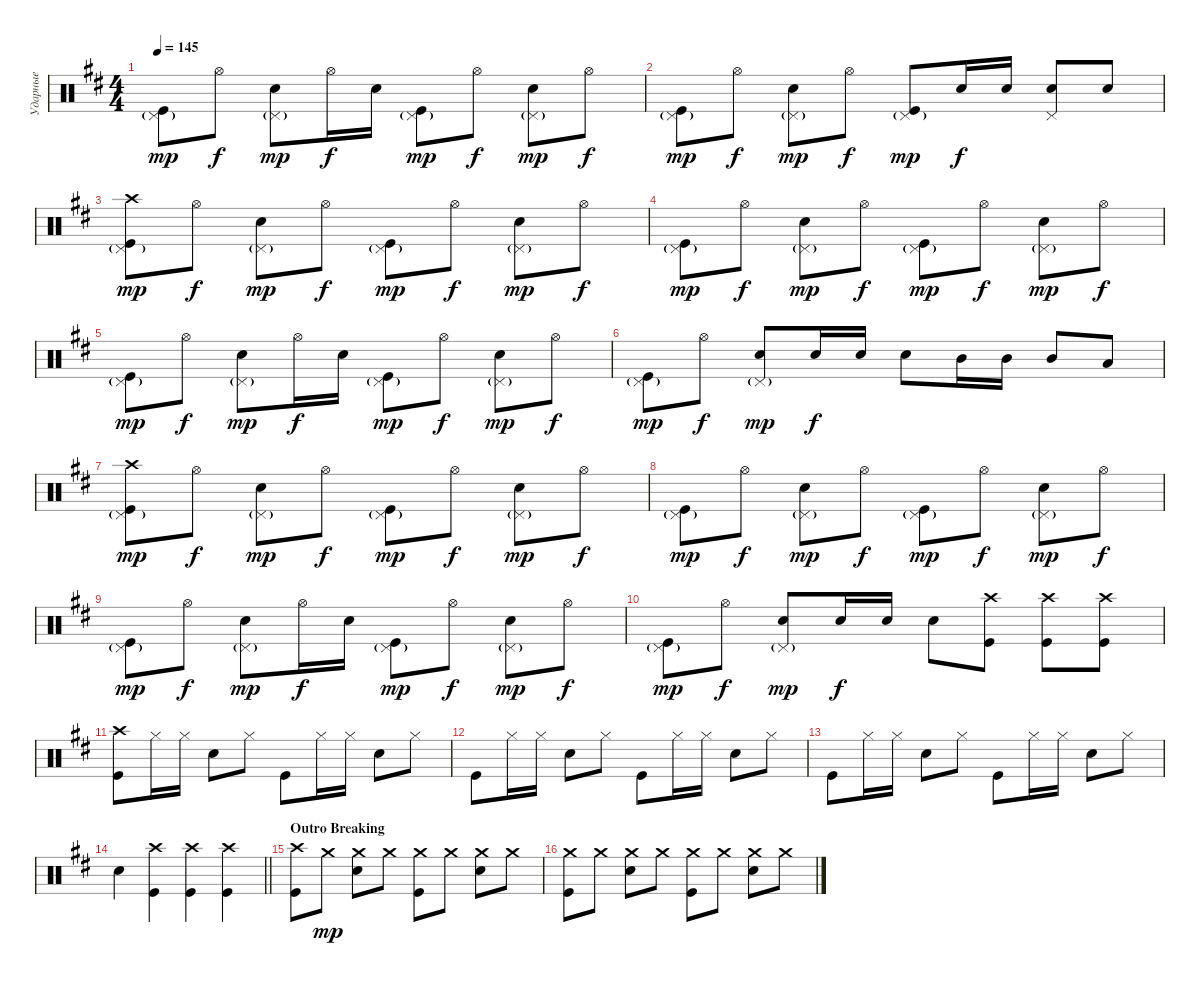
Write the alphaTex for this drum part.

\track ("Ударные" "Ударные") {instrument percussion}
\staff {score}
\articulation defaults
\ts (4 4)
\tempo 145
\clef neutral
\ks bminor
("Pedal Hi-Hat (hit)"{g} "Kick (hit)").8{dy mp} "Hi-Hat (open)".8{dy f} ("Snare (hit) 2" "Pedal Hi-Hat (hit)"{g}).8{dy mp} "Hi-Hat (open)".16{dy f} "Snare (hit) 2".16 ("Pedal Hi-Hat (hit)"{g} "Kick (hit)").8{dy mp} "Hi-Hat (open)".8{dy f} ("Snare (hit) 2" "Pedal Hi-Hat (hit)"{g}).8{dy mp} "Hi-Hat (open)".8{dy f} |
("Pedal Hi-Hat (hit)"{g} "Kick (hit)").8{dy mp} "Hi-Hat (open)".8{dy f} ("Snare (hit) 2" "Pedal Hi-Hat (hit)"{g}).8{dy mp} "Hi-Hat (open)".8{dy f} ("Pedal Hi-Hat (hit)"{g} "Kick (hit)").8{dy mp} "Snare (hit) 2".16{dy f} "Snare (hit) 2".16 ("Snare (hit) 2" "Pedal Hi-Hat (hit)").8 "Snare (hit) 2".8 |
("Pedal Hi-Hat (hit)"{g} "Kick (hit)" "Crash high (hit)").8{dy mp} "Hi-Hat (open)".8{dy f} ("Snare (hit) 2" "Pedal Hi-Hat (hit)"{g}).8{dy mp} "Hi-Hat (open)".8{dy f} ("Pedal Hi-Hat (hit)"{g} "Kick (hit)").8{dy mp} "Hi-Hat (open)".8{dy f} ("Snare (hit) 2" "Pedal Hi-Hat (hit)"{g}).8{dy mp} "Hi-Hat (open)".8{dy f} |
("Pedal Hi-Hat (hit)"{g} "Kick (hit)").8{dy mp} "Hi-Hat (open)".8{dy f} ("Snare (hit) 2" "Pedal Hi-Hat (hit)"{g}).8{dy mp} "Hi-Hat (open)".8{dy f} ("Pedal Hi-Hat (hit)"{g} "Kick (hit)").8{dy mp} "Hi-Hat (open)".8{dy f} ("Snare (hit) 2" "Pedal Hi-Hat (hit)"{g}).8{dy mp} "Hi-Hat (open)".8{dy f} |
("Pedal Hi-Hat (hit)"{g} "Kick (hit)").8{dy mp} "Hi-Hat (open)".8{dy f} ("Snare (hit) 2" "Pedal Hi-Hat (hit)"{g}).8{dy mp} "Hi-Hat (open)".16{dy f} "Snare (hit) 2".16 ("Pedal Hi-Hat (hit)"{g} "Kick (hit)").8{dy mp} "Hi-Hat (open)".8{dy f} ("Snare (hit) 2" "Pedal Hi-Hat (hit)"{g}).8{dy mp} "Hi-Hat (open)".8{dy f} |
("Pedal Hi-Hat (hit)"{g} "Kick (hit)").8{dy mp} "Hi-Hat (open)".8{dy f} ("Snare (hit) 2" "Pedal Hi-Hat (hit)"{g}).8{dy mp} "Snare (hit) 2".16{dy f} "Snare (hit) 2".16 "Snare (hit) 2".8 "Mid Tom (hit)".16 "Mid Tom (hit)".16 "Mid Tom (hit)".8 "Low Tom (hit)".8 |
("Pedal Hi-Hat (hit)"{g} "Kick (hit)" "Crash high (hit)").8{dy mp} "Hi-Hat (open)".8{dy f} ("Snare (hit) 2" "Pedal Hi-Hat (hit)"{g}).8{dy mp} "Hi-Hat (open)".8{dy f} ("Pedal Hi-Hat (hit)"{g} "Kick (hit)").8{dy mp} "Hi-Hat (open)".8{dy f} ("Snare (hit) 2" "Pedal Hi-Hat (hit)"{g}).8{dy mp} "Hi-Hat (open)".8{dy f} |
("Pedal Hi-Hat (hit)"{g} "Kick (hit)").8{dy mp} "Hi-Hat (open)".8{dy f} ("Snare (hit) 2" "Pedal Hi-Hat (hit)"{g}).8{dy mp} "Hi-Hat (open)".8{dy f} ("Pedal Hi-Hat (hit)"{g} "Kick (hit)").8{dy mp} "Hi-Hat (open)".8{dy f} ("Snare (hit) 2" "Pedal Hi-Hat (hit)"{g}).8{dy mp} "Hi-Hat (open)".8{dy f} |
("Pedal Hi-Hat (hit)"{g} "Kick (hit)").8{dy mp} "Hi-Hat (open)".8{dy f} ("Snare (hit) 2" "Pedal Hi-Hat (hit)"{g}).8{dy mp} "Hi-Hat (open)".16{dy f} "Snare (hit) 2".16 ("Pedal Hi-Hat (hit)"{g} "Kick (hit)").8{dy mp} "Hi-Hat (open)".8{dy f} ("Snare (hit) 2" "Pedal Hi-Hat (hit)"{g}).8{dy mp} "Hi-Hat (open)".8{dy f} |
("Pedal Hi-Hat (hit)"{g} "Kick (hit)").8{dy mp} "Hi-Hat (open)".8{dy f} ("Snare (hit) 2" "Pedal Hi-Hat (hit)"{g}).8{dy mp} "Snare (hit) 2".16{dy f} "Snare (hit) 2".16 "Snare (hit) 2".8 ("Kick (hit)" "Crash high (hit)").8 ("Kick (hit)" "Crash high (hit)").8 ("Kick (hit)" "Crash high (hit)").8 |
("Kick (hit)" "Crash high (hit)").8 "Hi-Hat (closed)".16 "Hi-Hat (closed)".16 "Snare (hit) 2".8 "Hi-Hat (closed)".8 "Kick (hit)".8 "Hi-Hat (closed)".16 "Hi-Hat (closed)".16 "Snare (hit) 2".8 "Hi-Hat (closed)".8 |
"Kick (hit)".8 "Hi-Hat (closed)".16 "Hi-Hat (closed)".16 "Snare (hit) 2".8 "Hi-Hat (closed)".8 "Kick (hit)".8 "Hi-Hat (closed)".16 "Hi-Hat (closed)".16 "Snare (hit) 2".8 "Hi-Hat (closed)".8 |
"Kick (hit)".8 "Hi-Hat (closed)".16 "Hi-Hat (closed)".16 "Snare (hit) 2".8 "Hi-Hat (closed)".8 "Kick (hit)".8 "Hi-Hat (closed)".16 "Hi-Hat (closed)".16 "Snare (hit) 2".8 "Hi-Hat (closed)".8 |
\barLineRight lightlight "Snare (hit) 2".4
("Kick (hit)" "Crash high (hit)").4 ("Kick (hit)" "Crash high (hit)").4 ("Kick (hit)" "Crash high (hit)").4 |
\section ("" "Outro Breaking")
("Kick (hit)" "Crash high (hit)").8 "Crash medium (hit)".8{dy mp} ("Snare (hit) 2" "Crash medium (hit)").8 "Crash medium (hit)".8 ("Kick (hit)" "Crash medium (hit)").8 "Crash medium (hit)".8 ("Snare (hit) 2" "Crash medium (hit)").8 "Crash medium (hit)".8 |
("Kick (hit)" "Crash medium (hit)").8 "Crash medium (hit)".8 ("Snare (hit) 2" "Crash medium (hit)").8 "Crash medium (hit)".8 ("Kick (hit)" "Crash medium (hit)").8 "Crash medium (hit)".8 ("Snare (hit) 2" "Crash medium (hit)").8 "Crash medium (hit)".8
